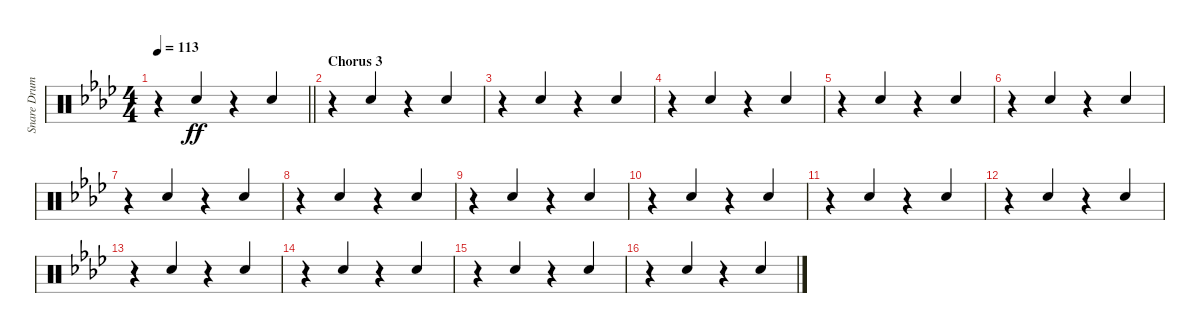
\track ("Snare Drum" "Snare Drum") {instrument percussion}
\staff {score}
\articulation defaults
\ts (4 4)
\tempo 113
\clef neutral
\barLineRight lightlight
\ks fminor
r.4{dy ff} "Electric Snare (hit)".4{beam Up} r.4 "Electric Snare (hit)".4{beam Up} |
\section ("" "Chorus 3")
r.4 "Electric Snare (hit)".4{beam Up} r.4 "Electric Snare (hit)".4{beam Up} |
r.4 "Electric Snare (hit)".4{beam Up} r.4 "Electric Snare (hit)".4{beam Up} |
r.4 "Electric Snare (hit)".4{beam Up} r.4 "Electric Snare (hit)".4{beam Up} |
r.4 "Electric Snare (hit)".4{beam Up} r.4 "Electric Snare (hit)".4{beam Up} |
r.4 "Electric Snare (hit)".4{beam Up} r.4 "Electric Snare (hit)".4{beam Up} |
r.4 "Electric Snare (hit)".4{beam Up} r.4 "Electric Snare (hit)".4{beam Up} |
r.4 "Electric Snare (hit)".4{beam Up} r.4 "Electric Snare (hit)".4{beam Up} |
r.4 "Electric Snare (hit)".4{beam Up} r.4 "Electric Snare (hit)".4{beam Up} |
r.4 "Electric Snare (hit)".4{beam Up} r.4 "Electric Snare (hit)".4{beam Up} |
r.4 "Electric Snare (hit)".4{beam Up} r.4 "Electric Snare (hit)".4{beam Up} |
r.4 "Electric Snare (hit)".4{beam Up} r.4 "Electric Snare (hit)".4{beam Up} |
r.4 "Electric Snare (hit)".4{beam Up} r.4 "Electric Snare (hit)".4{beam Up} |
r.4 "Electric Snare (hit)".4{beam Up} r.4 "Electric Snare (hit)".4{beam Up} |
r.4 "Electric Snare (hit)".4{beam Up} r.4 "Electric Snare (hit)".4{beam Up} |
r.4 "Electric Snare (hit)".4{beam Up} r.4 "Electric Snare (hit)".4{beam Up}
